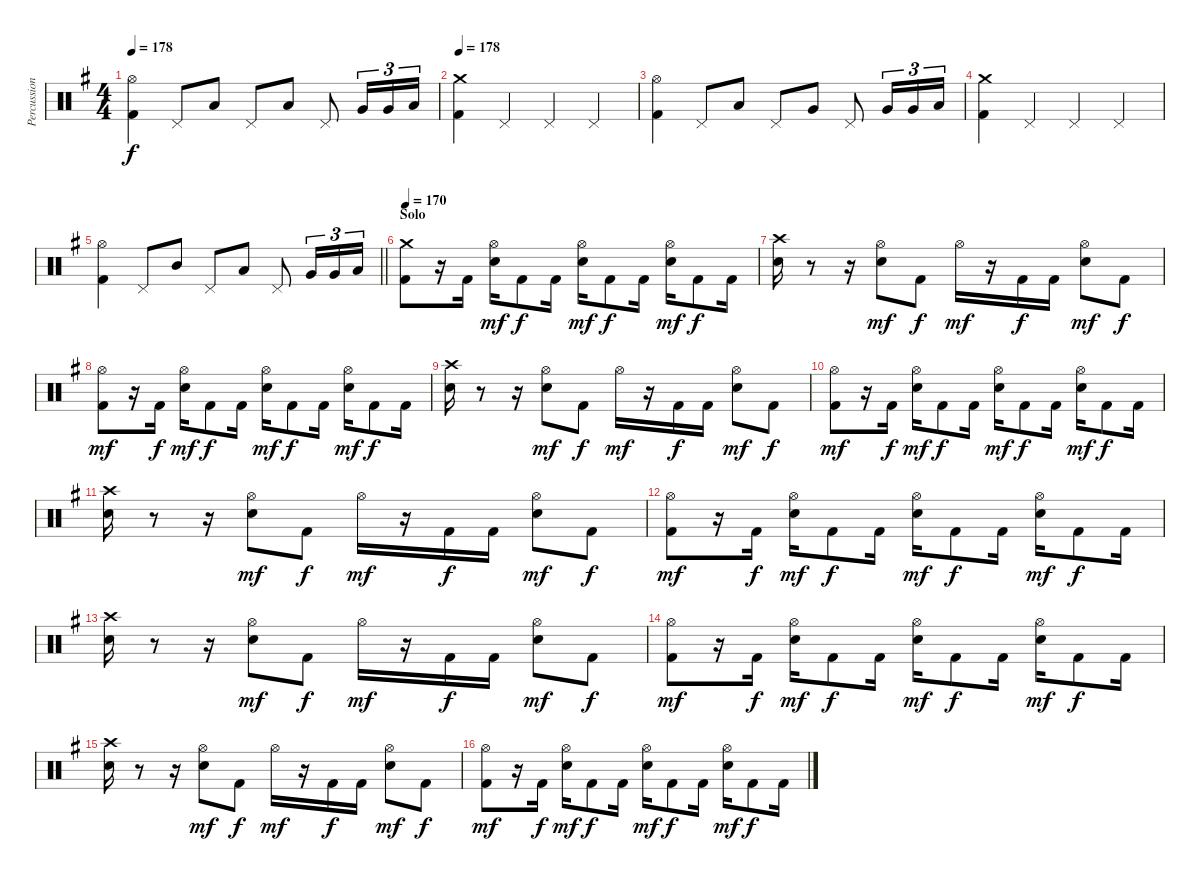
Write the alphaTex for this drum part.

\track ("Percussion" "Percussion") {instrument percussion}
\staff {score}
\articulation defaults
\ts (4 4)
\tempo 178
\clef neutral
\ks g
("Hi-Hat (open)" "Kick (hit) 2").4{dy f} "Pedal Hi-Hat (hit)".8 "Low Floor Tom (hit)".8 "Pedal Hi-Hat (hit)".8 "Low Tom (hit)".8 "Pedal Hi-Hat (hit)".8 "Very Low Tom (hit)".16{tu (3 2)} "Very Low Tom (hit)".16{tu (3 2)} "Low Floor Tom (hit)".16{tu (3 2)} |
\tempo 178
("Crash medium (hit)" "Kick (hit) 2").4 "Pedal Hi-Hat (hit)".4 "Pedal Hi-Hat (hit)".4 "Pedal Hi-Hat (hit)".4 |
("Hi-Hat (open)" "Kick (hit) 2").4 "Pedal Hi-Hat (hit)".8 "Low Tom (hit)".8 "Pedal Hi-Hat (hit)".8 "Very Low Tom (hit)".8 "Pedal Hi-Hat (hit)".8 "Very Low Tom (hit)".16{tu (3 2)} "Very Low Tom (hit)".16{tu (3 2)} "Low Floor Tom (hit)".16{tu (3 2)} |
("Crash medium (hit)" "Kick (hit) 2").4 "Pedal Hi-Hat (hit)".4 "Pedal Hi-Hat (hit)".4 "Pedal Hi-Hat (hit)".4 |
\barLineRight lightlight
("Hi-Hat (open)" "Kick (hit) 2").4 "Pedal Hi-Hat (hit)".8 "Mid Tom (hit)".8 "Pedal Hi-Hat (hit)".8 "Low Tom (hit)".8 "Pedal Hi-Hat (hit)".8 "Very Low Tom (hit)".16{tu (3 2)} "Very Low Tom (hit)".16{tu (3 2)} "Low Floor Tom (hit)".16{tu (3 2)} |
\section ("" "Solo")
\tempo 170
("Crash medium (hit)" "Kick (hit) 2").8 r.16 "Kick (hit) 2".16 ("Hi-Hat (open)" "Snare (hit) 2").16{dy mf} "Kick (hit) 2".8{dy f} "Kick (hit) 2".16 ("Hi-Hat (open)" "Snare (hit) 2").16{dy mf} "Kick (hit) 2".8{dy f} "Kick (hit) 2".16 ("Hi-Hat (open)" "Snare (hit) 2").16{dy mf} "Kick (hit) 2".8{dy f} "Kick (hit) 2".16 |
("Crash high (hit)" "Snare (hit) 2").16 r.8 r.16 ("Hi-Hat (open)" "Snare (hit) 2").8{dy mf} "Kick (hit) 2".8{dy f} "Hi-Hat (open)".16{dy mf} r.16 "Kick (hit) 2".16{dy f} "Kick (hit) 2".16 ("Hi-Hat (open)" "Snare (hit) 2").8{dy mf} "Kick (hit) 2".8{dy f} |
("Hi-Hat (open)" "Kick (hit) 2").8{dy mf} r.16 "Kick (hit) 2".16{dy f} ("Hi-Hat (open)" "Snare (hit) 2").16{dy mf} "Kick (hit) 2".8{dy f} "Kick (hit) 2".16 ("Hi-Hat (open)" "Snare (hit) 2").16{dy mf} "Kick (hit) 2".8{dy f} "Kick (hit) 2".16 ("Hi-Hat (open)" "Snare (hit) 2").16{dy mf} "Kick (hit) 2".8{dy f} "Kick (hit) 2".16 |
("Crash high (hit)" "Snare (hit) 2").16 r.8 r.16 ("Hi-Hat (open)" "Snare (hit) 2").8{dy mf} "Kick (hit) 2".8{dy f} "Hi-Hat (open)".16{dy mf} r.16 "Kick (hit) 2".16{dy f} "Kick (hit) 2".16 ("Hi-Hat (open)" "Snare (hit) 2").8{dy mf} "Kick (hit) 2".8{dy f} |
("Hi-Hat (open)" "Kick (hit) 2").8{dy mf} r.16 "Kick (hit) 2".16{dy f} ("Hi-Hat (open)" "Snare (hit) 2").16{dy mf} "Kick (hit) 2".8{dy f} "Kick (hit) 2".16 ("Hi-Hat (open)" "Snare (hit) 2").16{dy mf} "Kick (hit) 2".8{dy f} "Kick (hit) 2".16 ("Hi-Hat (open)" "Snare (hit) 2").16{dy mf} "Kick (hit) 2".8{dy f} "Kick (hit) 2".16 |
("Crash high (hit)" "Snare (hit) 2").16 r.8 r.16 ("Hi-Hat (open)" "Snare (hit) 2").8{dy mf} "Kick (hit) 2".8{dy f} "Hi-Hat (open)".16{dy mf} r.16 "Kick (hit) 2".16{dy f} "Kick (hit) 2".16 ("Hi-Hat (open)" "Snare (hit) 2").8{dy mf} "Kick (hit) 2".8{dy f} |
("Hi-Hat (open)" "Kick (hit) 2").8{dy mf} r.16 "Kick (hit) 2".16{dy f} ("Hi-Hat (open)" "Snare (hit) 2").16{dy mf} "Kick (hit) 2".8{dy f} "Kick (hit) 2".16 ("Hi-Hat (open)" "Snare (hit) 2").16{dy mf} "Kick (hit) 2".8{dy f} "Kick (hit) 2".16 ("Hi-Hat (open)" "Snare (hit) 2").16{dy mf} "Kick (hit) 2".8{dy f} "Kick (hit) 2".16 |
("Crash high (hit)" "Snare (hit) 2").16 r.8 r.16 ("Hi-Hat (open)" "Snare (hit) 2").8{dy mf} "Kick (hit) 2".8{dy f} "Hi-Hat (open)".16{dy mf} r.16 "Kick (hit) 2".16{dy f} "Kick (hit) 2".16 ("Hi-Hat (open)" "Snare (hit) 2").8{dy mf} "Kick (hit) 2".8{dy f} |
("Hi-Hat (open)" "Kick (hit) 2").8{dy mf} r.16 "Kick (hit) 2".16{dy f} ("Hi-Hat (open)" "Snare (hit) 2").16{dy mf} "Kick (hit) 2".8{dy f} "Kick (hit) 2".16 ("Hi-Hat (open)" "Snare (hit) 2").16{dy mf} "Kick (hit) 2".8{dy f} "Kick (hit) 2".16 ("Hi-Hat (open)" "Snare (hit) 2").16{dy mf} "Kick (hit) 2".8{dy f} "Kick (hit) 2".16 |
("Crash high (hit)" "Snare (hit) 2").16 r.8 r.16 ("Hi-Hat (open)" "Snare (hit) 2").8{dy mf} "Kick (hit) 2".8{dy f} "Hi-Hat (open)".16{dy mf} r.16 "Kick (hit) 2".16{dy f} "Kick (hit) 2".16 ("Hi-Hat (open)" "Snare (hit) 2").8{dy mf} "Kick (hit) 2".8{dy f} |
("Hi-Hat (open)" "Kick (hit) 2").8{dy mf} r.16 "Kick (hit) 2".16{dy f} ("Hi-Hat (open)" "Snare (hit) 2").16{dy mf} "Kick (hit) 2".8{dy f} "Kick (hit) 2".16 ("Hi-Hat (open)" "Snare (hit) 2").16{dy mf} "Kick (hit) 2".8{dy f} "Kick (hit) 2".16 ("Hi-Hat (open)" "Snare (hit) 2").16{dy mf} "Kick (hit) 2".8{dy f} "Kick (hit) 2".16
